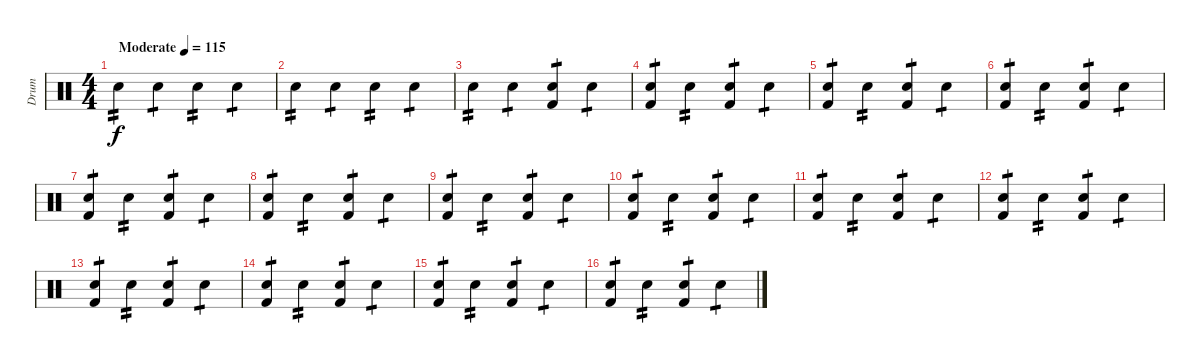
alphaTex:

\track ("Drum" "Drum") {instrument percussion}
\staff {score}
\articulation defaults
\ts (4 4)
\tempo (115 "Moderate")
\clef neutral
\ks c "Snare (hit) 2".4{tp 2 dy f} "Snare (hit) 2".4{tp 1} "Snare (hit) 2".4{tp 2} "Snare (hit) 2".4{tp 1}
|
"Snare (hit) 2".4{tp 2} "Snare (hit) 2".4{tp 1} "Snare (hit) 2".4{tp 2} "Snare (hit) 2".4{tp 1} |
"Snare (hit) 2".4{tp 2} "Snare (hit) 2".4{tp 1} ("Kick (hit) 2" "Snare (hit) 2").4{tp 1} "Snare (hit) 2".4{tp 1} |
("Kick (hit) 2" "Snare (hit) 2").4{tp 1} "Snare (hit) 2".4{tp 2} ("Kick (hit) 2" "Snare (hit) 2").4{tp 1} "Snare (hit) 2".4{tp 1} |
("Kick (hit) 2" "Snare (hit) 2").4{tp 1} "Snare (hit) 2".4{tp 2} ("Kick (hit) 2" "Snare (hit) 2").4{tp 1} "Snare (hit) 2".4{tp 1} |
("Kick (hit) 2" "Snare (hit) 2").4{tp 1} "Snare (hit) 2".4{tp 2} ("Kick (hit) 2" "Snare (hit) 2").4{tp 1} "Snare (hit) 2".4{tp 1} |
("Kick (hit) 2" "Snare (hit) 2").4{tp 1} "Snare (hit) 2".4{tp 2} ("Kick (hit) 2" "Snare (hit) 2").4{tp 1} "Snare (hit) 2".4{tp 1} |
("Kick (hit) 2" "Snare (hit) 2").4{tp 1} "Snare (hit) 2".4{tp 2} ("Kick (hit) 2" "Snare (hit) 2").4{tp 1} "Snare (hit) 2".4{tp 1} |
("Kick (hit) 2" "Snare (hit) 2").4{tp 1} "Snare (hit) 2".4{tp 2} ("Kick (hit) 2" "Snare (hit) 2").4{tp 1} "Snare (hit) 2".4{tp 1} |
("Kick (hit) 2" "Snare (hit) 2").4{tp 1} "Snare (hit) 2".4{tp 2} ("Kick (hit) 2" "Snare (hit) 2").4{tp 1} "Snare (hit) 2".4{tp 1} |
("Kick (hit) 2" "Snare (hit) 2").4{tp 1} "Snare (hit) 2".4{tp 2} ("Kick (hit) 2" "Snare (hit) 2").4{tp 1} "Snare (hit) 2".4{tp 1} |
("Kick (hit) 2" "Snare (hit) 2").4{tp 1} "Snare (hit) 2".4{tp 2} ("Kick (hit) 2" "Snare (hit) 2").4{tp 1} "Snare (hit) 2".4{tp 1} |
("Kick (hit) 2" "Snare (hit) 2").4{tp 1} "Snare (hit) 2".4{tp 2} ("Kick (hit) 2" "Snare (hit) 2").4{tp 1} "Snare (hit) 2".4{tp 1} |
("Kick (hit) 2" "Snare (hit) 2").4{tp 1} "Snare (hit) 2".4{tp 2} ("Kick (hit) 2" "Snare (hit) 2").4{tp 1} "Snare (hit) 2".4{tp 1} |
("Kick (hit) 2" "Snare (hit) 2").4{tp 1} "Snare (hit) 2".4{tp 2} ("Kick (hit) 2" "Snare (hit) 2").4{tp 1} "Snare (hit) 2".4{tp 1} |
("Kick (hit) 2" "Snare (hit) 2").4{tp 1} "Snare (hit) 2".4{tp 2} ("Kick (hit) 2" "Snare (hit) 2").4{tp 1} "Snare (hit) 2".4{tp 1}
